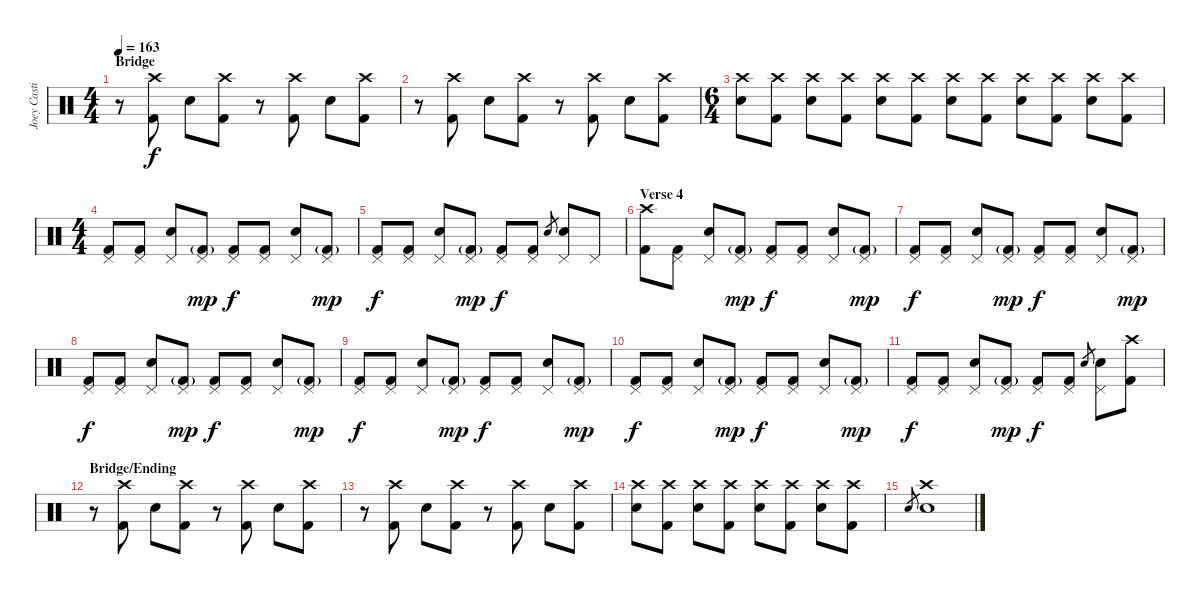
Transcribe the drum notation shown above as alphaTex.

\track ("Joey Castillo" "Joey Casti") {instrument percussion}
\staff {score}
\articulation defaults
\ts (4 4)
\section ("" "Bridge")
\tempo 163
\clef neutral
\ks c
r.8{dy f} ("Crash high (hit)" "Kick (hit) 2").8 "Electric Snare (hit)".8 ("Crash high (hit)" "Kick (hit) 2").8 r.8 ("Crash high (hit)" "Kick (hit) 2").8 "Electric Snare (hit)".8 ("Crash high (hit)" "Kick (hit) 2").8 |
r.8 ("Crash high (hit)" "Kick (hit) 2").8 "Electric Snare (hit)".8 ("Crash high (hit)" "Kick (hit) 2").8 r.8 ("Crash high (hit)" "Kick (hit) 2").8 "Electric Snare (hit)".8 ("Crash high (hit)" "Kick (hit) 2").8 |
\ts (6 4)
("Crash high (hit)" "Electric Snare (hit)").8 ("Crash high (hit)" "Kick (hit) 2").8 ("Crash high (hit)" "Electric Snare (hit)").8 ("Crash high (hit)" "Kick (hit) 2").8 ("Crash high (hit)" "Electric Snare (hit)").8 ("Crash high (hit)" "Kick (hit) 2").8 ("Crash high (hit)" "Electric Snare (hit)").8 ("Crash high (hit)" "Kick (hit) 2").8 ("Crash high (hit)" "Electric Snare (hit)").8 ("Crash high (hit)" "Kick (hit) 2").8 ("Crash high (hit)" "Electric Snare (hit)").8 ("Crash high (hit)" "Kick (hit) 2").8 |
\ts (4 4)
("Pedal Hi-Hat (hit)" "Kick (hit) 2").8 ("Pedal Hi-Hat (hit)" "Kick (hit) 2").8 ("Pedal Hi-Hat (hit)" "Electric Snare (hit)").8 ("Pedal Hi-Hat (hit)" "Kick (hit) 2"{g}).8{dy mp} ("Pedal Hi-Hat (hit)" "Kick (hit) 2").8{dy f} ("Pedal Hi-Hat (hit)" "Kick (hit) 2").8 ("Pedal Hi-Hat (hit)" "Electric Snare (hit)").8 ("Pedal Hi-Hat (hit)" "Kick (hit) 2"{g}).8{dy mp} |
("Pedal Hi-Hat (hit)" "Kick (hit) 2").8{dy f} ("Pedal Hi-Hat (hit)" "Kick (hit) 2").8 ("Pedal Hi-Hat (hit)" "Electric Snare (hit)").8 ("Pedal Hi-Hat (hit)" "Kick (hit) 2"{g}).8{dy mp} ("Pedal Hi-Hat (hit)" "Kick (hit) 2").8{dy f} ("Pedal Hi-Hat (hit)" "Kick (hit) 2").8 "Electric Snare (hit)".8{gr} ("Pedal Hi-Hat (hit)" "Electric Snare (hit)").8 "Pedal Hi-Hat (hit)".8 |
\section ("" "Verse 4")
("Crash high (hit)" "Kick (hit) 2").8 ("Pedal Hi-Hat (hit)" "Kick (hit) 2").8 ("Pedal Hi-Hat (hit)" "Electric Snare (hit)").8 ("Pedal Hi-Hat (hit)" "Kick (hit) 2"{g}).8{dy mp} ("Pedal Hi-Hat (hit)" "Kick (hit) 2").8{dy f} ("Pedal Hi-Hat (hit)" "Kick (hit) 2").8 ("Pedal Hi-Hat (hit)" "Electric Snare (hit)").8 ("Pedal Hi-Hat (hit)" "Kick (hit) 2"{g}).8{dy mp} |
("Pedal Hi-Hat (hit)" "Kick (hit) 2").8{dy f} ("Pedal Hi-Hat (hit)" "Kick (hit) 2").8 ("Pedal Hi-Hat (hit)" "Electric Snare (hit)").8 ("Pedal Hi-Hat (hit)" "Kick (hit) 2"{g}).8{dy mp} ("Pedal Hi-Hat (hit)" "Kick (hit) 2").8{dy f} ("Pedal Hi-Hat (hit)" "Kick (hit) 2").8 ("Pedal Hi-Hat (hit)" "Electric Snare (hit)").8 ("Pedal Hi-Hat (hit)" "Kick (hit) 2"{g}).8{dy mp} |
("Pedal Hi-Hat (hit)" "Kick (hit) 2").8{dy f} ("Pedal Hi-Hat (hit)" "Kick (hit) 2").8 ("Pedal Hi-Hat (hit)" "Electric Snare (hit)").8 ("Pedal Hi-Hat (hit)" "Kick (hit) 2"{g}).8{dy mp} ("Pedal Hi-Hat (hit)" "Kick (hit) 2").8{dy f} ("Pedal Hi-Hat (hit)" "Kick (hit) 2").8 ("Pedal Hi-Hat (hit)" "Electric Snare (hit)").8 ("Pedal Hi-Hat (hit)" "Kick (hit) 2"{g}).8{dy mp} |
("Pedal Hi-Hat (hit)" "Kick (hit) 2").8{dy f} ("Pedal Hi-Hat (hit)" "Kick (hit) 2").8 ("Pedal Hi-Hat (hit)" "Electric Snare (hit)").8 ("Pedal Hi-Hat (hit)" "Kick (hit) 2"{g}).8{dy mp} ("Pedal Hi-Hat (hit)" "Kick (hit) 2").8{dy f} ("Pedal Hi-Hat (hit)" "Kick (hit) 2").8 ("Pedal Hi-Hat (hit)" "Electric Snare (hit)").8 ("Pedal Hi-Hat (hit)" "Kick (hit) 2"{g}).8{dy mp} |
("Pedal Hi-Hat (hit)" "Kick (hit) 2").8{dy f} ("Pedal Hi-Hat (hit)" "Kick (hit) 2").8 ("Pedal Hi-Hat (hit)" "Electric Snare (hit)").8 ("Pedal Hi-Hat (hit)" "Kick (hit) 2"{g}).8{dy mp} ("Pedal Hi-Hat (hit)" "Kick (hit) 2").8{dy f} ("Pedal Hi-Hat (hit)" "Kick (hit) 2").8 ("Pedal Hi-Hat (hit)" "Electric Snare (hit)").8 ("Pedal Hi-Hat (hit)" "Kick (hit) 2"{g}).8{dy mp} |
("Pedal Hi-Hat (hit)" "Kick (hit) 2").8{dy f} ("Pedal Hi-Hat (hit)" "Kick (hit) 2").8 ("Pedal Hi-Hat (hit)" "Electric Snare (hit)").8 ("Pedal Hi-Hat (hit)" "Kick (hit) 2"{g}).8{dy mp} ("Pedal Hi-Hat (hit)" "Kick (hit) 2").8{dy f} ("Pedal Hi-Hat (hit)" "Kick (hit) 2").8 "Electric Snare (hit)".8{gr} ("Pedal Hi-Hat (hit)" "Electric Snare (hit)").8 ("Crash high (hit)" "Kick (hit) 2").8 |
\section ("" "Bridge/Ending")
r.8 ("Crash high (hit)" "Kick (hit) 2").8 "Electric Snare (hit)".8 ("Crash high (hit)" "Kick (hit) 2").8 r.8 ("Crash high (hit)" "Kick (hit) 2").8 "Electric Snare (hit)".8 ("Crash high (hit)" "Kick (hit) 2").8 |
r.8 ("Crash high (hit)" "Kick (hit) 2").8 "Electric Snare (hit)".8 ("Crash high (hit)" "Kick (hit) 2").8 r.8 ("Crash high (hit)" "Kick (hit) 2").8 "Electric Snare (hit)".8 ("Crash high (hit)" "Kick (hit) 2").8 |
("Crash high (hit)" "Electric Snare (hit)").8 ("Crash high (hit)" "Kick (hit) 2").8 ("Crash high (hit)" "Electric Snare (hit)").8 ("Crash high (hit)" "Kick (hit) 2").8 ("Crash high (hit)" "Electric Snare (hit)").8 ("Crash high (hit)" "Kick (hit) 2").8 ("Crash high (hit)" "Electric Snare (hit)").8 ("Crash high (hit)" "Kick (hit) 2").8 |
"Electric Snare (hit)".8{gr} ("Crash high (hit)" "Electric Snare (hit)").1
